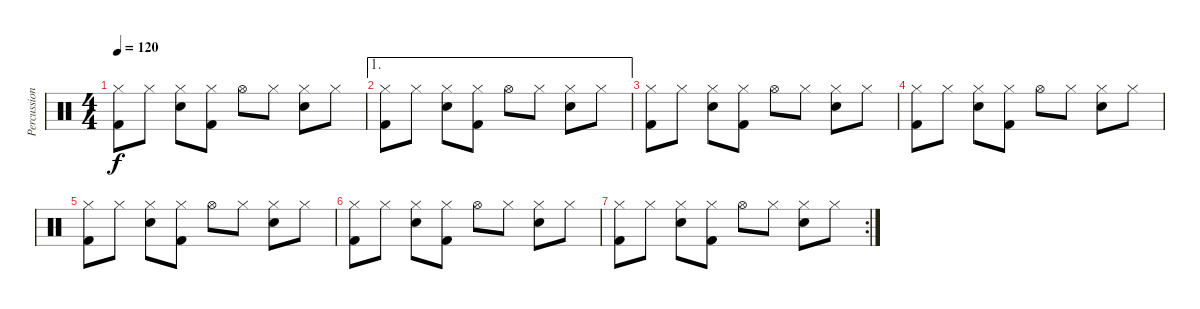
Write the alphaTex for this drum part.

\track ("Percussion" "Percussion") {instrument percussion}
\staff {score}
\articulation defaults
\ts (4 4)
\tempo 120
\clef neutral
\ks c
("Hi-Hat (closed)" "Kick (hit) 2").8{dy f} "Hi-Hat (closed)".8 ("Hi-Hat (closed)" "Snare (hit) 2").8 ("Hi-Hat (closed)" "Kick (hit) 2").8 "Hi-Hat (open)".8 "Hi-Hat (closed)".8 ("Hi-Hat (closed)" "Snare (hit) 2").8 "Hi-Hat (closed)".8 |
\ae 1
("Hi-Hat (closed)" "Kick (hit) 2").8 "Hi-Hat (closed)".8 ("Hi-Hat (closed)" "Snare (hit) 2").8 ("Hi-Hat (closed)" "Kick (hit) 2").8 "Hi-Hat (open)".8 "Hi-Hat (closed)".8 ("Hi-Hat (closed)" "Snare (hit) 2").8 "Hi-Hat (closed)".8 |
("Hi-Hat (closed)" "Kick (hit) 2").8 "Hi-Hat (closed)".8 ("Hi-Hat (closed)" "Snare (hit) 2").8 ("Hi-Hat (closed)" "Kick (hit) 2").8 "Hi-Hat (open)".8 "Hi-Hat (closed)".8 ("Hi-Hat (closed)" "Snare (hit) 2").8 "Hi-Hat (closed)".8 |
("Hi-Hat (closed)" "Kick (hit) 2").8 "Hi-Hat (closed)".8 ("Hi-Hat (closed)" "Snare (hit) 2").8 ("Hi-Hat (closed)" "Kick (hit) 2").8 "Hi-Hat (open)".8 "Hi-Hat (closed)".8 ("Hi-Hat (closed)" "Snare (hit) 2").8 "Hi-Hat (closed)".8 |
("Hi-Hat (closed)" "Kick (hit) 2").8 "Hi-Hat (closed)".8 ("Hi-Hat (closed)" "Snare (hit) 2").8 ("Hi-Hat (closed)" "Kick (hit) 2").8 "Hi-Hat (open)".8 "Hi-Hat (closed)".8 ("Hi-Hat (closed)" "Snare (hit) 2").8 "Hi-Hat (closed)".8 |
("Hi-Hat (closed)" "Kick (hit) 2").8 "Hi-Hat (closed)".8 ("Hi-Hat (closed)" "Snare (hit) 2").8 ("Hi-Hat (closed)" "Kick (hit) 2").8 "Hi-Hat (open)".8 "Hi-Hat (closed)".8 ("Hi-Hat (closed)" "Snare (hit) 2").8 "Hi-Hat (closed)".8 |
\rc 2
("Hi-Hat (closed)" "Kick (hit) 2").8 "Hi-Hat (closed)".8 ("Hi-Hat (closed)" "Snare (hit) 2").8 ("Hi-Hat (closed)" "Kick (hit) 2").8 "Hi-Hat (open)".8 "Hi-Hat (closed)".8 ("Hi-Hat (closed)" "Snare (hit) 2").8 "Hi-Hat (closed)".8
